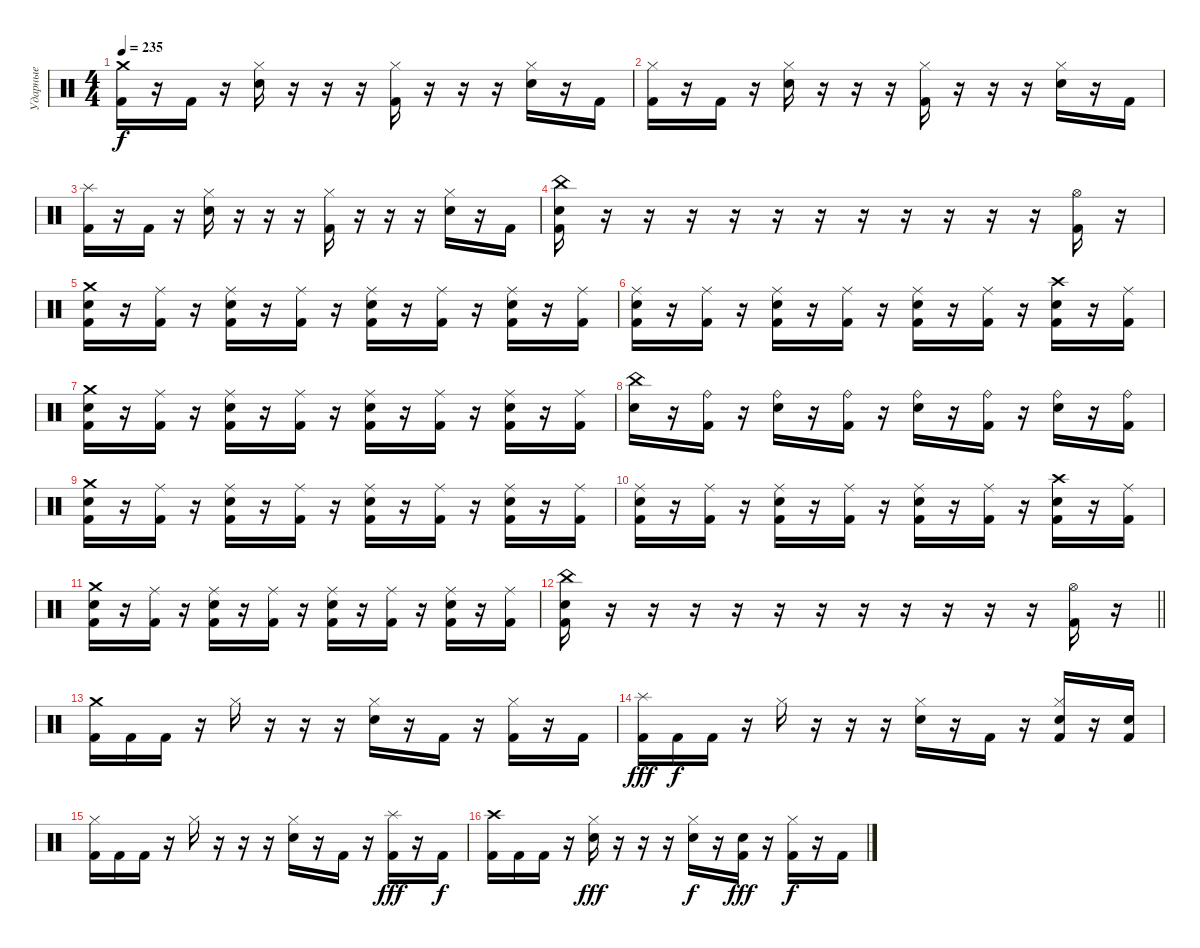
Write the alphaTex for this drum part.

\track ("Ударные" "Ударные") {instrument percussion}
\staff {score}
\articulation defaults
\ts (4 4)
\tempo 235
\clef neutral
\ks c
("Crash medium (hit)" "Kick (hit) 2").16{dy f} r.16 "Kick (hit) 2".16 r.16 ("Hi-Hat (closed)" "Snare (hit) 2").16 r.16 r.16 r.16 ("Hi-Hat (closed)" "Kick (hit) 2").16 r.16 r.16 r.16 ("Hi-Hat (closed)" "Snare (hit) 2").16 r.16 "Kick (hit) 2".16 |
("Hi-Hat (closed)" "Kick (hit) 2").16 r.16 "Kick (hit) 2".16 r.16 ("Hi-Hat (closed)" "Snare (hit) 2").16 r.16 r.16 r.16 ("Hi-Hat (closed)" "Kick (hit) 2").16 r.16 r.16 r.16 ("Hi-Hat (closed)" "Snare (hit) 2").16 r.16 "Kick (hit) 2".16 |
("Splash (hit)" "Kick (hit) 2").16 r.16 "Kick (hit) 2".16 r.16 ("Hi-Hat (closed)" "Snare (hit) 2").16 r.16 r.16 r.16 ("Hi-Hat (closed)" "Kick (hit) 2").16 r.16 r.16 r.16 ("Hi-Hat (closed)" "Snare (hit) 2").16 r.16 "Kick (hit) 2".16 |
("China (hit)" "Snare (hit) 2" "Kick (hit) 2").16 r.16 r.16 r.16 r.16 r.16 r.16 r.16 r.16 r.16 r.16 r.16 ("Hi-Hat (open)" "Kick (hit) 2").16 r.16 |
("Crash medium (hit)" "Snare (hit) 2" "Kick (hit) 2").16 r.16 ("Ride (middle)" "Kick (hit) 2").16 r.16 ("Ride (middle)" "Snare (hit) 2" "Kick (hit) 2").16 r.16 ("Ride (middle)" "Kick (hit) 2").16 r.16 ("Ride (middle)" "Snare (hit) 2" "Kick (hit) 2").16 r.16 ("Ride (middle)" "Kick (hit) 2").16 r.16 ("Ride (middle)" "Snare (hit) 2" "Kick (hit) 2").16 r.16 ("Ride (middle)" "Kick (hit) 2").16 |
("Ride (middle)" "Snare (hit) 2" "Kick (hit) 2").16 r.16 ("Ride (middle)" "Kick (hit) 2").16 r.16 ("Ride (middle)" "Snare (hit) 2" "Kick (hit) 2").16 r.16 ("Ride (middle)" "Kick (hit) 2").16 r.16 ("Ride (middle)" "Snare (hit) 2" "Kick (hit) 2").16 r.16 ("Ride (middle)" "Kick (hit) 2").16 r.16 ("Crash high (hit)" "Snare (hit) 2" "Kick (hit) 2").16 r.16 ("Ride (middle)" "Kick (hit) 2").16 |
("Crash medium (hit)" "Snare (hit) 2" "Kick (hit) 2").16 r.16 ("Ride (middle)" "Kick (hit) 2").16 r.16 ("Ride (middle)" "Snare (hit) 2" "Kick (hit) 2").16 r.16 ("Ride (middle)" "Kick (hit) 2").16 r.16 ("Ride (middle)" "Snare (hit) 2" "Kick (hit) 2").16 r.16 ("Ride (middle)" "Kick (hit) 2").16 r.16 ("Ride (middle)" "Snare (hit) 2" "Kick (hit) 2").16 r.16 ("Ride (middle)" "Kick (hit) 2").16 |
("China (hit)" "Snare (hit) 2").16 r.16 ("Ride (bell)" "Kick (hit) 2").16 r.16 ("Ride (bell)" "Snare (hit) 2").16 r.16 ("Ride (bell)" "Kick (hit) 2").16 r.16 ("Ride (bell)" "Snare (hit) 2").16 r.16 ("Ride (bell)" "Kick (hit) 2").16 r.16 ("Ride (bell)" "Snare (hit) 2").16 r.16 ("Ride (bell)" "Kick (hit) 2").16 |
("Crash medium (hit)" "Snare (hit) 2" "Kick (hit) 2").16 r.16 ("Ride (middle)" "Kick (hit) 2").16 r.16 ("Ride (middle)" "Snare (hit) 2" "Kick (hit) 2").16 r.16 ("Ride (middle)" "Kick (hit) 2").16 r.16 ("Ride (middle)" "Snare (hit) 2" "Kick (hit) 2").16 r.16 ("Ride (middle)" "Kick (hit) 2").16 r.16 ("Ride (middle)" "Snare (hit) 2" "Kick (hit) 2").16 r.16 ("Ride (middle)" "Kick (hit) 2").16 |
("Ride (middle)" "Snare (hit) 2" "Kick (hit) 2").16 r.16 ("Ride (middle)" "Kick (hit) 2").16 r.16 ("Ride (middle)" "Snare (hit) 2" "Kick (hit) 2").16 r.16 ("Ride (middle)" "Kick (hit) 2").16 r.16 ("Ride (middle)" "Snare (hit) 2" "Kick (hit) 2").16 r.16 ("Ride (middle)" "Kick (hit) 2").16 r.16 ("Crash high (hit)" "Snare (hit) 2" "Kick (hit) 2").16 r.16 ("Ride (middle)" "Kick (hit) 2").16 |
("Crash medium (hit)" "Snare (hit) 2" "Kick (hit) 2").16 r.16 ("Ride (middle)" "Kick (hit) 2").16 r.16 ("Ride (middle)" "Snare (hit) 2" "Kick (hit) 2").16 r.16 ("Ride (middle)" "Kick (hit) 2").16 r.16 ("Ride (middle)" "Snare (hit) 2" "Kick (hit) 2").16 r.16 ("Ride (middle)" "Kick (hit) 2").16 r.16 ("Ride (middle)" "Snare (hit) 2" "Kick (hit) 2").16 r.16 ("Ride (middle)" "Kick (hit) 2").16 |
\barLineRight lightlight
("China (hit)" "Snare (hit) 2" "Kick (hit) 2").16 r.16 r.16 r.16 r.16 r.16 r.16 r.16 r.16 r.16 r.16 r.16 ("Hi-Hat (open)" "Kick (hit) 2").16 r.16 |
("Crash medium (hit)" "Kick (hit) 2").16 "Kick (hit) 2".16 "Kick (hit) 2".16 r.16 "Hi-Hat (closed)".16 r.16 r.16 r.16 ("Hi-Hat (closed)" "Snare (hit) 2").16 r.16 "Kick (hit) 2".16 r.16 ("Hi-Hat (closed)" "Kick (hit) 2").16 r.16 "Kick (hit) 2".16 |
("Splash (hit)" "Kick (hit) 2").16{dy fff} "Kick (hit) 2".16{dy f} "Kick (hit) 2".16 r.16 "Hi-Hat (closed)".16 r.16 r.16 r.16 ("Hi-Hat (closed)" "Snare (hit) 2").16 r.16 "Kick (hit) 2".16 r.16 ("Hi-Hat (closed)" "Snare (hit) 2" "Kick (hit) 2").16 r.16 ("Snare (hit) 2" "Kick (hit) 2").16 |
("Hi-Hat (closed)" "Kick (hit) 2").16 "Kick (hit) 2".16 "Kick (hit) 2".16 r.16 "Hi-Hat (closed)".16 r.16 r.16 r.16 ("Hi-Hat (closed)" "Snare (hit) 2").16 r.16 "Kick (hit) 2".16 r.16 ("Splash (hit)" "Kick (hit) 2").16{dy fff} r.16 "Kick (hit) 2".16{dy f} |
("Crash high (hit)" "Kick (hit) 2").16 "Kick (hit) 2".16 "Kick (hit) 2".16 r.16 ("Hi-Hat (closed)" "Snare (hit) 2").16{dy fff} r.16 r.16 r.16 ("Hi-Hat (closed)" "Snare (hit) 2").16{dy f} r.16 ("Snare (hit) 2" "Kick (hit) 2").16{dy fff} r.16 ("Hi-Hat (closed)" "Kick (hit) 2").16{dy f} r.16 "Kick (hit) 2".16
